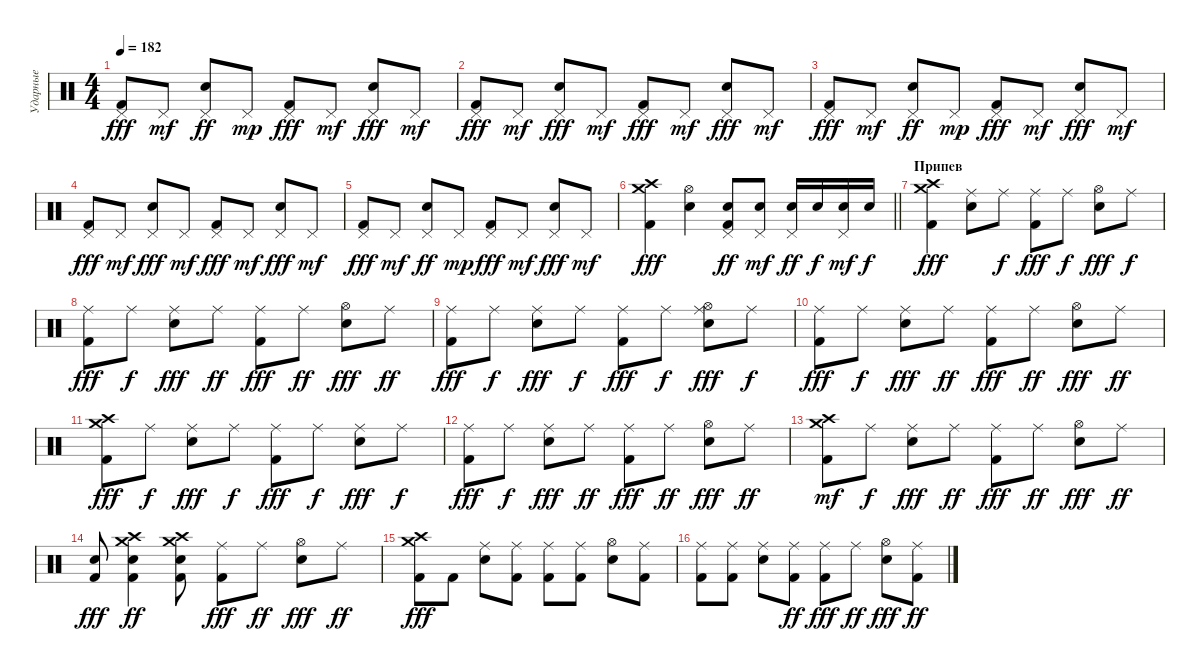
\track ("Ударные" "Ударные") {instrument percussion}
\staff {score}
\articulation defaults
\ts (4 4)
\tempo 182
\clef neutral
\ks c
("Pedal Hi-Hat (hit)" "Kick (hit) 2").8{dy fff} "Pedal Hi-Hat (hit)".8{dy mf} ("Electric Snare (hit)" "Pedal Hi-Hat (hit)").8{dy ff} "Pedal Hi-Hat (hit)".8{dy mp} ("Pedal Hi-Hat (hit)" "Kick (hit) 2").8{dy fff} "Pedal Hi-Hat (hit)".8{dy mf} ("Pedal Hi-Hat (hit)" "Electric Snare (hit)").8{dy fff} "Pedal Hi-Hat (hit)".8{dy mf} |
("Pedal Hi-Hat (hit)" "Kick (hit) 2").8{dy fff} "Pedal Hi-Hat (hit)".8{dy mf} ("Pedal Hi-Hat (hit)" "Electric Snare (hit)").8{dy fff} "Pedal Hi-Hat (hit)".8{dy mf} ("Pedal Hi-Hat (hit)" "Kick (hit) 2").8{dy fff} "Pedal Hi-Hat (hit)".8{dy mf} ("Pedal Hi-Hat (hit)" "Electric Snare (hit)").8{dy fff} "Pedal Hi-Hat (hit)".8{dy mf} |
("Pedal Hi-Hat (hit)" "Kick (hit) 2").8{dy fff} "Pedal Hi-Hat (hit)".8{dy mf} ("Electric Snare (hit)" "Pedal Hi-Hat (hit)").8{dy ff} "Pedal Hi-Hat (hit)".8{dy mp} ("Pedal Hi-Hat (hit)" "Kick (hit) 2").8{dy fff} "Pedal Hi-Hat (hit)".8{dy mf} ("Pedal Hi-Hat (hit)" "Electric Snare (hit)").8{dy fff} "Pedal Hi-Hat (hit)".8{dy mf} |
("Pedal Hi-Hat (hit)" "Kick (hit) 2").8{dy fff} "Pedal Hi-Hat (hit)".8{dy mf} ("Pedal Hi-Hat (hit)" "Electric Snare (hit)").8{dy fff} "Pedal Hi-Hat (hit)".8{dy mf} ("Pedal Hi-Hat (hit)" "Kick (hit) 2").8{dy fff} "Pedal Hi-Hat (hit)".8{dy mf} ("Pedal Hi-Hat (hit)" "Electric Snare (hit)").8{dy fff} "Pedal Hi-Hat (hit)".8{dy mf} |
("Pedal Hi-Hat (hit)" "Kick (hit) 2").8{dy fff} "Pedal Hi-Hat (hit)".8{dy mf} ("Electric Snare (hit)" "Pedal Hi-Hat (hit)").8{dy ff} "Pedal Hi-Hat (hit)".8{dy mp} ("Pedal Hi-Hat (hit)" "Kick (hit) 2").8{dy fff} "Pedal Hi-Hat (hit)".8{dy mf} ("Pedal Hi-Hat (hit)" "Electric Snare (hit)").8{dy fff} "Pedal Hi-Hat (hit)".8{dy mf} |
\barLineRight lightlight
("Crash medium (hit)" "Crash high (hit)" "Kick (hit) 2").4{dy fff} ("Hi-Hat (open)" "Electric Snare (hit)").4 ("Kick (hit) 2" "Electric Snare (hit)" "Pedal Hi-Hat (hit)").8{dy ff} ("Electric Snare (hit)" "Pedal Hi-Hat (hit)").8{dy mf} ("Electric Snare (hit)" "Pedal Hi-Hat (hit)").16{dy ff} "Electric Snare (hit)".16{dy f} ("Electric Snare (hit)" "Pedal Hi-Hat (hit)").16{dy mf} "Electric Snare (hit)".16{dy f} |
\section ("" "Припев")
("Crash medium (hit)" "Crash high (hit)" "Kick (hit) 2").4{dy fff} ("Ride (middle)" "Electric Snare (hit)").8 "Ride (middle)".8{dy f} ("Ride (middle)" "Kick (hit) 2").8{dy fff} "Ride (middle)".8{dy f} ("Hi-Hat (open)" "Electric Snare (hit)").8{dy fff} "Ride (middle)".8{dy f} |
("Ride (middle)" "Kick (hit) 2").8{dy fff} "Ride (middle)".8{dy f} ("Ride (middle)" "Electric Snare (hit)").8{dy fff} "Ride (middle)".8{dy ff} ("Ride (middle)" "Kick (hit) 2").8{dy fff} "Ride (middle)".8{dy ff} ("Hi-Hat (open)" "Electric Snare (hit)").8{dy fff} "Ride (middle)".8{dy ff} |
("Ride (middle)" "Kick (hit) 2").8{dy fff} "Ride (middle)".8{dy f} ("Ride (middle)" "Electric Snare (hit)").8{dy fff} "Ride (middle)".8{dy f} ("Ride (middle)" "Kick (hit) 2").8{dy fff} "Ride (middle)".8{dy f} ("Hi-Hat (open)" "Ride (middle)" "Electric Snare (hit)").8{dy fff} "Ride (middle)".8{dy f} |
("Ride (middle)" "Kick (hit) 2").8{dy fff} "Ride (middle)".8{dy f} ("Ride (middle)" "Electric Snare (hit)").8{dy fff} "Ride (middle)".8{dy ff} ("Ride (middle)" "Kick (hit) 2").8{dy fff} "Ride (middle)".8{dy ff} ("Hi-Hat (open)" "Electric Snare (hit)").8{dy fff} "Ride (middle)".8{dy ff} |
("Crash medium (hit)" "Crash high (hit)" "Kick (hit) 2").8{dy fff} "Ride (middle)".8{dy f} ("Ride (middle)" "Electric Snare (hit)").8{dy fff} "Ride (middle)".8{dy f} ("Ride (middle)" "Kick (hit) 2").8{dy fff} "Ride (middle)".8{dy f} ("Ride (middle)" "Electric Snare (hit)").8{dy fff} "Ride (middle)".8{dy f} |
("Ride (middle)" "Kick (hit) 2").8{dy fff} "Ride (middle)".8{dy f} ("Ride (middle)" "Electric Snare (hit)").8{dy fff} "Ride (middle)".8{dy ff} ("Ride (middle)" "Kick (hit) 2").8{dy fff} "Ride (middle)".8{dy ff} ("Hi-Hat (open)" "Electric Snare (hit)").8{dy fff} "Ride (middle)".8{dy ff} |
("Crash high (hit)" "Kick (hit) 2" "Crash medium (hit)").8{dy mf} "Ride (middle)".8{dy f} ("Ride (middle)" "Electric Snare (hit)").8{dy fff} "Ride (middle)".8{dy ff} ("Ride (middle)" "Kick (hit) 2").8{dy fff} "Ride (middle)".8{dy ff} ("Hi-Hat (open)" "Electric Snare (hit)").8{dy fff} "Ride (middle)".8{dy ff} |
("Kick (hit) 2" "Electric Snare (hit)").8{dy fff} ("Electric Snare (hit)" "Kick (hit) 2" "Crash medium (hit)" "Crash high (hit)").4{dy ff} ("Kick (hit) 2" "Electric Snare (hit)" "Crash high (hit)" "Crash medium (hit)").8 ("Ride (middle)" "Kick (hit) 2").8{dy fff} "Ride (middle)".8{dy ff} ("Hi-Hat (open)" "Electric Snare (hit)").8{dy fff} "Ride (middle)".8{dy ff} |
("Crash medium (hit)" "Crash high (hit)" "Kick (hit) 2").8{dy fff} "Kick (hit) 2".8 ("Ride (middle)" "Electric Snare (hit)").8 ("Kick (hit) 2" "Ride (middle)").8 ("Ride (middle)" "Kick (hit) 2").8 ("Kick (hit) 2" "Ride (middle)").8 ("Hi-Hat (open)" "Electric Snare (hit)").8 ("Kick (hit) 2" "Ride (middle)").8 |
("Ride (middle)" "Kick (hit) 2").8 ("Kick (hit) 2" "Ride (middle)").8 ("Ride (middle)" "Electric Snare (hit)").8 ("Kick (hit) 2" "Ride (middle)").8{dy ff} ("Ride (middle)" "Kick (hit) 2").8{dy fff} "Ride (middle)".8{dy ff} ("Hi-Hat (open)" "Electric Snare (hit)").8{dy fff} ("Kick (hit) 2" "Ride (middle)").8{dy ff}
